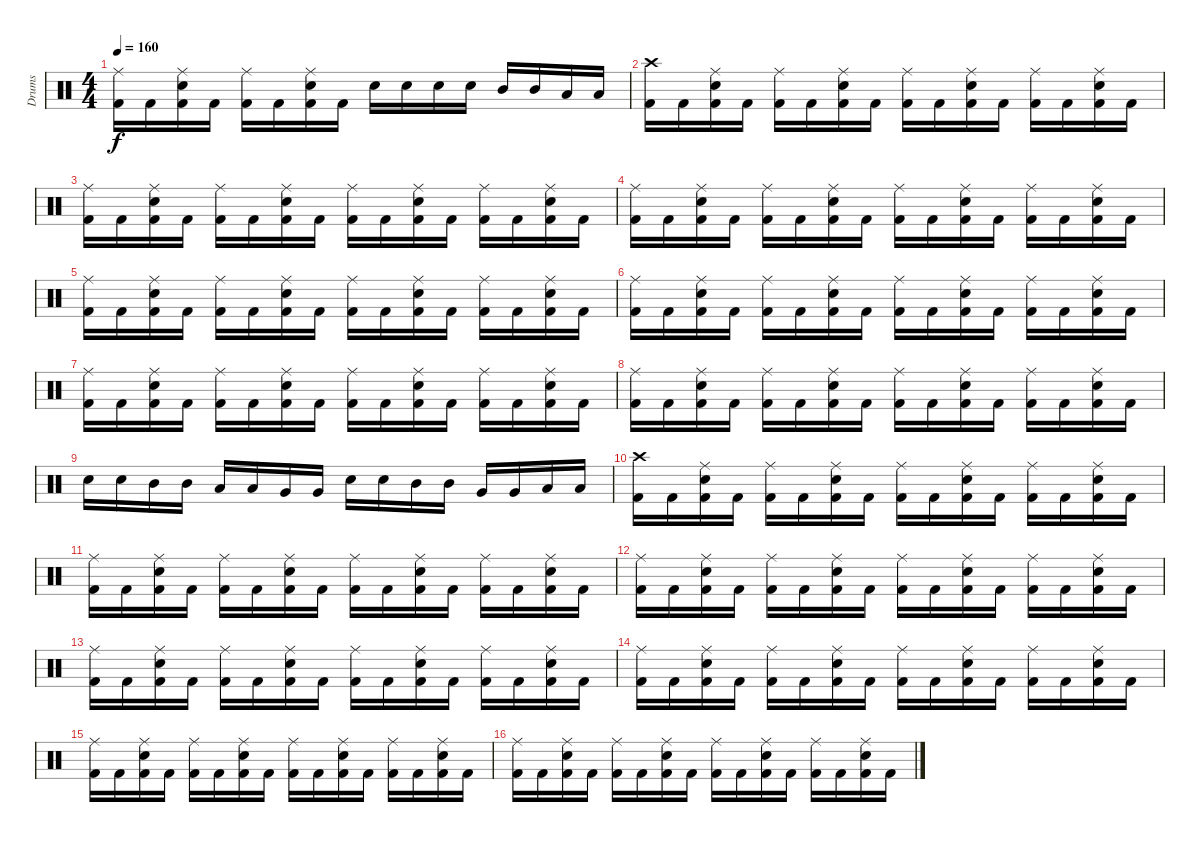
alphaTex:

\track ("Drums" "Drums") {instrument percussion}
\staff {score}
\articulation defaults
\ts (4 4)
\tempo 160
\clef neutral
\ks c
("Ride (middle)" "Kick (hit) 2").16{dy f} "Kick (hit) 2".16 ("Ride (middle)" "Electric Snare (hit)" "Kick (hit) 2").16 "Kick (hit) 2".16 ("Ride (middle)" "Kick (hit) 2").16 "Kick (hit) 2".16 ("Ride (middle)" "Electric Snare (hit)" "Kick (hit) 2").16 "Kick (hit) 2".16 "Electric Snare (hit)".16 "Electric Snare (hit)".16 "Electric Snare (hit)".16 "Electric Snare (hit)".16 "Mid Tom (hit)".16 "Mid Tom (hit)".16 "Low Tom (hit)".16 "Low Tom (hit)".16 |
("Crash high (hit)" "Kick (hit) 2").16 "Kick (hit) 2".16 ("Ride (middle)" "Electric Snare (hit)" "Kick (hit) 2").16 "Kick (hit) 2".16 ("Ride (middle)" "Kick (hit) 2").16 "Kick (hit) 2".16 ("Ride (middle)" "Electric Snare (hit)" "Kick (hit) 2").16 "Kick (hit) 2".16 ("Ride (middle)" "Kick (hit) 2").16 "Kick (hit) 2".16 ("Ride (middle)" "Electric Snare (hit)" "Kick (hit) 2").16 "Kick (hit) 2".16 ("Ride (middle)" "Kick (hit) 2").16 "Kick (hit) 2".16 ("Ride (middle)" "Electric Snare (hit)" "Kick (hit) 2").16 "Kick (hit) 2".16 |
("Ride (middle)" "Kick (hit) 2").16 "Kick (hit) 2".16 ("Ride (middle)" "Electric Snare (hit)" "Kick (hit) 2").16 "Kick (hit) 2".16 ("Ride (middle)" "Kick (hit) 2").16 "Kick (hit) 2".16 ("Ride (middle)" "Electric Snare (hit)" "Kick (hit) 2").16 "Kick (hit) 2".16 ("Ride (middle)" "Kick (hit) 2").16 "Kick (hit) 2".16 ("Ride (middle)" "Electric Snare (hit)" "Kick (hit) 2").16 "Kick (hit) 2".16 ("Ride (middle)" "Kick (hit) 2").16 "Kick (hit) 2".16 ("Ride (middle)" "Electric Snare (hit)" "Kick (hit) 2").16 "Kick (hit) 2".16 |
("Ride (middle)" "Kick (hit) 2").16 "Kick (hit) 2".16 ("Ride (middle)" "Electric Snare (hit)" "Kick (hit) 2").16 "Kick (hit) 2".16 ("Ride (middle)" "Kick (hit) 2").16 "Kick (hit) 2".16 ("Ride (middle)" "Electric Snare (hit)" "Kick (hit) 2").16 "Kick (hit) 2".16 ("Ride (middle)" "Kick (hit) 2").16 "Kick (hit) 2".16 ("Ride (middle)" "Electric Snare (hit)" "Kick (hit) 2").16 "Kick (hit) 2".16 ("Ride (middle)" "Kick (hit) 2").16 "Kick (hit) 2".16 ("Ride (middle)" "Electric Snare (hit)" "Kick (hit) 2").16 "Kick (hit) 2".16 |
("Ride (middle)" "Kick (hit) 2").16 "Kick (hit) 2".16 ("Ride (middle)" "Electric Snare (hit)" "Kick (hit) 2").16 "Kick (hit) 2".16 ("Ride (middle)" "Kick (hit) 2").16 "Kick (hit) 2".16 ("Ride (middle)" "Electric Snare (hit)" "Kick (hit) 2").16 "Kick (hit) 2".16 ("Ride (middle)" "Kick (hit) 2").16 "Kick (hit) 2".16 ("Ride (middle)" "Electric Snare (hit)" "Kick (hit) 2").16 "Kick (hit) 2".16 ("Ride (middle)" "Kick (hit) 2").16 "Kick (hit) 2".16 ("Ride (middle)" "Electric Snare (hit)" "Kick (hit) 2").16 "Kick (hit) 2".16 |
("Ride (middle)" "Kick (hit) 2").16 "Kick (hit) 2".16 ("Ride (middle)" "Electric Snare (hit)" "Kick (hit) 2").16 "Kick (hit) 2".16 ("Ride (middle)" "Kick (hit) 2").16 "Kick (hit) 2".16 ("Ride (middle)" "Electric Snare (hit)" "Kick (hit) 2").16 "Kick (hit) 2".16 ("Ride (middle)" "Kick (hit) 2").16 "Kick (hit) 2".16 ("Ride (middle)" "Electric Snare (hit)" "Kick (hit) 2").16 "Kick (hit) 2".16 ("Ride (middle)" "Kick (hit) 2").16 "Kick (hit) 2".16 ("Ride (middle)" "Electric Snare (hit)" "Kick (hit) 2").16 "Kick (hit) 2".16 |
("Ride (middle)" "Kick (hit) 2").16 "Kick (hit) 2".16 ("Ride (middle)" "Electric Snare (hit)" "Kick (hit) 2").16 "Kick (hit) 2".16 ("Ride (middle)" "Kick (hit) 2").16 "Kick (hit) 2".16 ("Ride (middle)" "Electric Snare (hit)" "Kick (hit) 2").16 "Kick (hit) 2".16 ("Ride (middle)" "Kick (hit) 2").16 "Kick (hit) 2".16 ("Ride (middle)" "Electric Snare (hit)" "Kick (hit) 2").16 "Kick (hit) 2".16 ("Ride (middle)" "Kick (hit) 2").16 "Kick (hit) 2".16 ("Ride (middle)" "Electric Snare (hit)" "Kick (hit) 2").16 "Kick (hit) 2".16 |
("Ride (middle)" "Kick (hit) 2").16 "Kick (hit) 2".16 ("Ride (middle)" "Electric Snare (hit)" "Kick (hit) 2").16 "Kick (hit) 2".16 ("Ride (middle)" "Kick (hit) 2").16 "Kick (hit) 2".16 ("Ride (middle)" "Electric Snare (hit)" "Kick (hit) 2").16 "Kick (hit) 2".16 ("Ride (middle)" "Kick (hit) 2").16 "Kick (hit) 2".16 ("Ride (middle)" "Electric Snare (hit)" "Kick (hit) 2").16 "Kick (hit) 2".16 ("Ride (middle)" "Kick (hit) 2").16 "Kick (hit) 2".16 ("Ride (middle)" "Electric Snare (hit)" "Kick (hit) 2").16 "Kick (hit) 2".16 |
"Electric Snare (hit)".16 "Electric Snare (hit)".16 "Mid Tom (hit)".16 "Mid Tom (hit)".16 "Low Tom (hit)".16 "Low Tom (hit)".16 "Very Low Tom (hit)".16 "Very Low Tom (hit)".16 "Electric Snare (hit)".16 "Electric Snare (hit)".16 "Mid Tom (hit)".16 "Mid Tom (hit)".16 "Very Low Tom (hit)".16 "Very Low Tom (hit)".16 "Low Floor Tom (hit)".16 "Low Floor Tom (hit)".16 |
("Crash high (hit)" "Kick (hit) 2").16 "Kick (hit) 2".16 ("Ride (middle)" "Electric Snare (hit)" "Kick (hit) 2").16 "Kick (hit) 2".16 ("Ride (middle)" "Kick (hit) 2").16 "Kick (hit) 2".16 ("Ride (middle)" "Electric Snare (hit)" "Kick (hit) 2").16 "Kick (hit) 2".16 ("Ride (middle)" "Kick (hit) 2").16 "Kick (hit) 2".16 ("Ride (middle)" "Electric Snare (hit)" "Kick (hit) 2").16 "Kick (hit) 2".16 ("Ride (middle)" "Kick (hit) 2").16 "Kick (hit) 2".16 ("Ride (middle)" "Electric Snare (hit)" "Kick (hit) 2").16 "Kick (hit) 2".16 |
("Ride (middle)" "Kick (hit) 2").16 "Kick (hit) 2".16 ("Ride (middle)" "Electric Snare (hit)" "Kick (hit) 2").16 "Kick (hit) 2".16 ("Ride (middle)" "Kick (hit) 2").16 "Kick (hit) 2".16 ("Ride (middle)" "Electric Snare (hit)" "Kick (hit) 2").16 "Kick (hit) 2".16 ("Ride (middle)" "Kick (hit) 2").16 "Kick (hit) 2".16 ("Ride (middle)" "Electric Snare (hit)" "Kick (hit) 2").16 "Kick (hit) 2".16 ("Ride (middle)" "Kick (hit) 2").16 "Kick (hit) 2".16 ("Ride (middle)" "Electric Snare (hit)" "Kick (hit) 2").16 "Kick (hit) 2".16 |
("Ride (middle)" "Kick (hit) 2").16 "Kick (hit) 2".16 ("Ride (middle)" "Electric Snare (hit)" "Kick (hit) 2").16 "Kick (hit) 2".16 ("Ride (middle)" "Kick (hit) 2").16 "Kick (hit) 2".16 ("Ride (middle)" "Electric Snare (hit)" "Kick (hit) 2").16 "Kick (hit) 2".16 ("Ride (middle)" "Kick (hit) 2").16 "Kick (hit) 2".16 ("Ride (middle)" "Electric Snare (hit)" "Kick (hit) 2").16 "Kick (hit) 2".16 ("Ride (middle)" "Kick (hit) 2").16 "Kick (hit) 2".16 ("Ride (middle)" "Electric Snare (hit)" "Kick (hit) 2").16 "Kick (hit) 2".16 |
("Ride (middle)" "Kick (hit) 2").16 "Kick (hit) 2".16 ("Ride (middle)" "Electric Snare (hit)" "Kick (hit) 2").16 "Kick (hit) 2".16 ("Ride (middle)" "Kick (hit) 2").16 "Kick (hit) 2".16 ("Ride (middle)" "Electric Snare (hit)" "Kick (hit) 2").16 "Kick (hit) 2".16 ("Ride (middle)" "Kick (hit) 2").16 "Kick (hit) 2".16 ("Ride (middle)" "Electric Snare (hit)" "Kick (hit) 2").16 "Kick (hit) 2".16 ("Ride (middle)" "Kick (hit) 2").16 "Kick (hit) 2".16 ("Ride (middle)" "Electric Snare (hit)" "Kick (hit) 2").16 "Kick (hit) 2".16 |
("Ride (middle)" "Kick (hit) 2").16 "Kick (hit) 2".16 ("Ride (middle)" "Electric Snare (hit)" "Kick (hit) 2").16 "Kick (hit) 2".16 ("Ride (middle)" "Kick (hit) 2").16 "Kick (hit) 2".16 ("Ride (middle)" "Electric Snare (hit)" "Kick (hit) 2").16 "Kick (hit) 2".16 ("Ride (middle)" "Kick (hit) 2").16 "Kick (hit) 2".16 ("Ride (middle)" "Electric Snare (hit)" "Kick (hit) 2").16 "Kick (hit) 2".16 ("Ride (middle)" "Kick (hit) 2").16 "Kick (hit) 2".16 ("Ride (middle)" "Electric Snare (hit)" "Kick (hit) 2").16 "Kick (hit) 2".16 |
("Ride (middle)" "Kick (hit) 2").16 "Kick (hit) 2".16 ("Ride (middle)" "Electric Snare (hit)" "Kick (hit) 2").16 "Kick (hit) 2".16 ("Ride (middle)" "Kick (hit) 2").16 "Kick (hit) 2".16 ("Ride (middle)" "Electric Snare (hit)" "Kick (hit) 2").16 "Kick (hit) 2".16 ("Ride (middle)" "Kick (hit) 2").16 "Kick (hit) 2".16 ("Ride (middle)" "Electric Snare (hit)" "Kick (hit) 2").16 "Kick (hit) 2".16 ("Ride (middle)" "Kick (hit) 2").16 "Kick (hit) 2".16 ("Ride (middle)" "Electric Snare (hit)" "Kick (hit) 2").16 "Kick (hit) 2".16 |
("Ride (middle)" "Kick (hit) 2").16 "Kick (hit) 2".16 ("Ride (middle)" "Electric Snare (hit)" "Kick (hit) 2").16 "Kick (hit) 2".16 ("Ride (middle)" "Kick (hit) 2").16 "Kick (hit) 2".16 ("Ride (middle)" "Electric Snare (hit)" "Kick (hit) 2").16 "Kick (hit) 2".16 ("Ride (middle)" "Kick (hit) 2").16 "Kick (hit) 2".16 ("Ride (middle)" "Electric Snare (hit)" "Kick (hit) 2").16 "Kick (hit) 2".16 ("Ride (middle)" "Kick (hit) 2").16 "Kick (hit) 2".16 ("Ride (middle)" "Electric Snare (hit)" "Kick (hit) 2").16 "Kick (hit) 2".16
